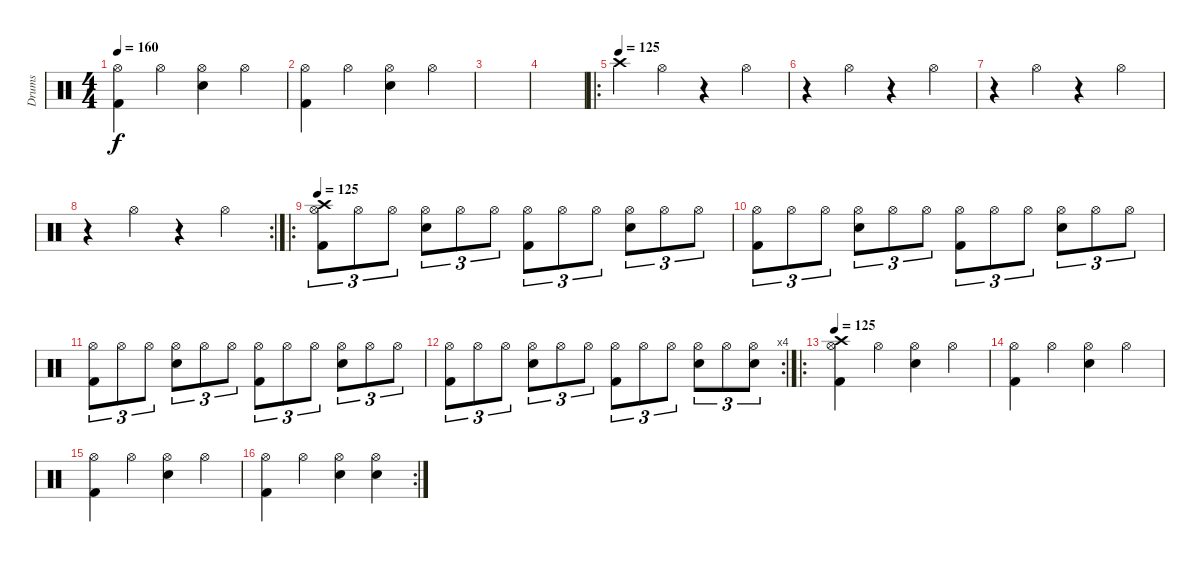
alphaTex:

\track ("Drums" "Drums") {instrument percussion}
\staff {score}
\articulation defaults
\ts (4 4)
\tempo 160
\clef neutral
\ks c
("Kick (hit) 2" "Hi-Hat (open)").4{dy f} "Hi-Hat (open)".4 ("Snare (hit) 2" "Hi-Hat (open)").4 "Hi-Hat (open)".4 |
("Kick (hit) 2" "Hi-Hat (open)").4 "Hi-Hat (open)".4 ("Snare (hit) 2" "Hi-Hat (open)").4 "Hi-Hat (open)".4 |
|
|
\ro
\tempo (125)
"Crash high (hit)".4 "Hi-Hat (open)".4 r.4 "Hi-Hat (open)".4 |
r.4 "Hi-Hat (open)".4 r.4 "Hi-Hat (open)".4 |
r.4 "Hi-Hat (open)".4 r.4 "Hi-Hat (open)".4 |
\rc 2
r.4 "Hi-Hat (open)".4 r.4 "Hi-Hat (open)".4 |
\ro
\tempo 125
("Kick (hit) 2" "Hi-Hat (open)" "Crash high (hit)").8{tu (3 2)} "Hi-Hat (open)".8{tu (3 2)} "Hi-Hat (open)".8{tu (3 2)} ("Snare (hit) 2" "Hi-Hat (open)").8{tu (3 2)} "Hi-Hat (open)".8{tu (3 2)} "Hi-Hat (open)".8{tu (3 2)} ("Kick (hit) 2" "Hi-Hat (open)").8{tu (3 2)} "Hi-Hat (open)".8{tu (3 2)} "Hi-Hat (open)".8{tu (3 2)} ("Snare (hit) 2" "Hi-Hat (open)").8{tu (3 2)} "Hi-Hat (open)".8{tu (3 2)} "Hi-Hat (open)".8{tu (3 2)} |
("Kick (hit) 2" "Hi-Hat (open)").8{tu (3 2)} "Hi-Hat (open)".8{tu (3 2)} "Hi-Hat (open)".8{tu (3 2)} ("Snare (hit) 2" "Hi-Hat (open)").8{tu (3 2)} "Hi-Hat (open)".8{tu (3 2)} "Hi-Hat (open)".8{tu (3 2)} ("Kick (hit) 2" "Hi-Hat (open)").8{tu (3 2)} "Hi-Hat (open)".8{tu (3 2)} "Hi-Hat (open)".8{tu (3 2)} ("Snare (hit) 2" "Hi-Hat (open)").8{tu (3 2)} "Hi-Hat (open)".8{tu (3 2)} "Hi-Hat (open)".8{tu (3 2)} |
("Kick (hit) 2" "Hi-Hat (open)").8{tu (3 2)} "Hi-Hat (open)".8{tu (3 2)} "Hi-Hat (open)".8{tu (3 2)} ("Snare (hit) 2" "Hi-Hat (open)").8{tu (3 2)} "Hi-Hat (open)".8{tu (3 2)} "Hi-Hat (open)".8{tu (3 2)} ("Kick (hit) 2" "Hi-Hat (open)").8{tu (3 2)} "Hi-Hat (open)".8{tu (3 2)} "Hi-Hat (open)".8{tu (3 2)} ("Snare (hit) 2" "Hi-Hat (open)").8{tu (3 2)} "Hi-Hat (open)".8{tu (3 2)} "Hi-Hat (open)".8{tu (3 2)} |
\rc 4
("Kick (hit) 2" "Hi-Hat (open)").8{tu (3 2)} "Hi-Hat (open)".8{tu (3 2)} "Hi-Hat (open)".8{tu (3 2)} ("Snare (hit) 2" "Hi-Hat (open)").8{tu (3 2)} "Hi-Hat (open)".8{tu (3 2)} "Hi-Hat (open)".8{tu (3 2)} ("Kick (hit) 2" "Hi-Hat (open)").8{tu (3 2)} "Hi-Hat (open)".8{tu (3 2)} "Hi-Hat (open)".8{tu (3 2)} ("Snare (hit) 2" "Hi-Hat (open)").8{tu (3 2)} "Hi-Hat (open)".8{tu (3 2)} ("Snare (hit) 2" "Hi-Hat (open)").8{tu (3 2)} |
\ro
\tempo 125
("Kick (hit) 2" "Hi-Hat (open)" "Crash high (hit)").4 "Hi-Hat (open)".4 ("Snare (hit) 2" "Hi-Hat (open)").4 "Hi-Hat (open)".4 |
("Kick (hit) 2" "Hi-Hat (open)").4 "Hi-Hat (open)".4 ("Snare (hit) 2" "Hi-Hat (open)").4 "Hi-Hat (open)".4 |
("Kick (hit) 2" "Hi-Hat (open)").4 "Hi-Hat (open)".4 ("Snare (hit) 2" "Hi-Hat (open)").4 "Hi-Hat (open)".4 |
\rc 2
("Kick (hit) 2" "Hi-Hat (open)").4 "Hi-Hat (open)".4 ("Snare (hit) 2" "Hi-Hat (open)").4 ("Snare (hit) 2" "Hi-Hat (open)").4
